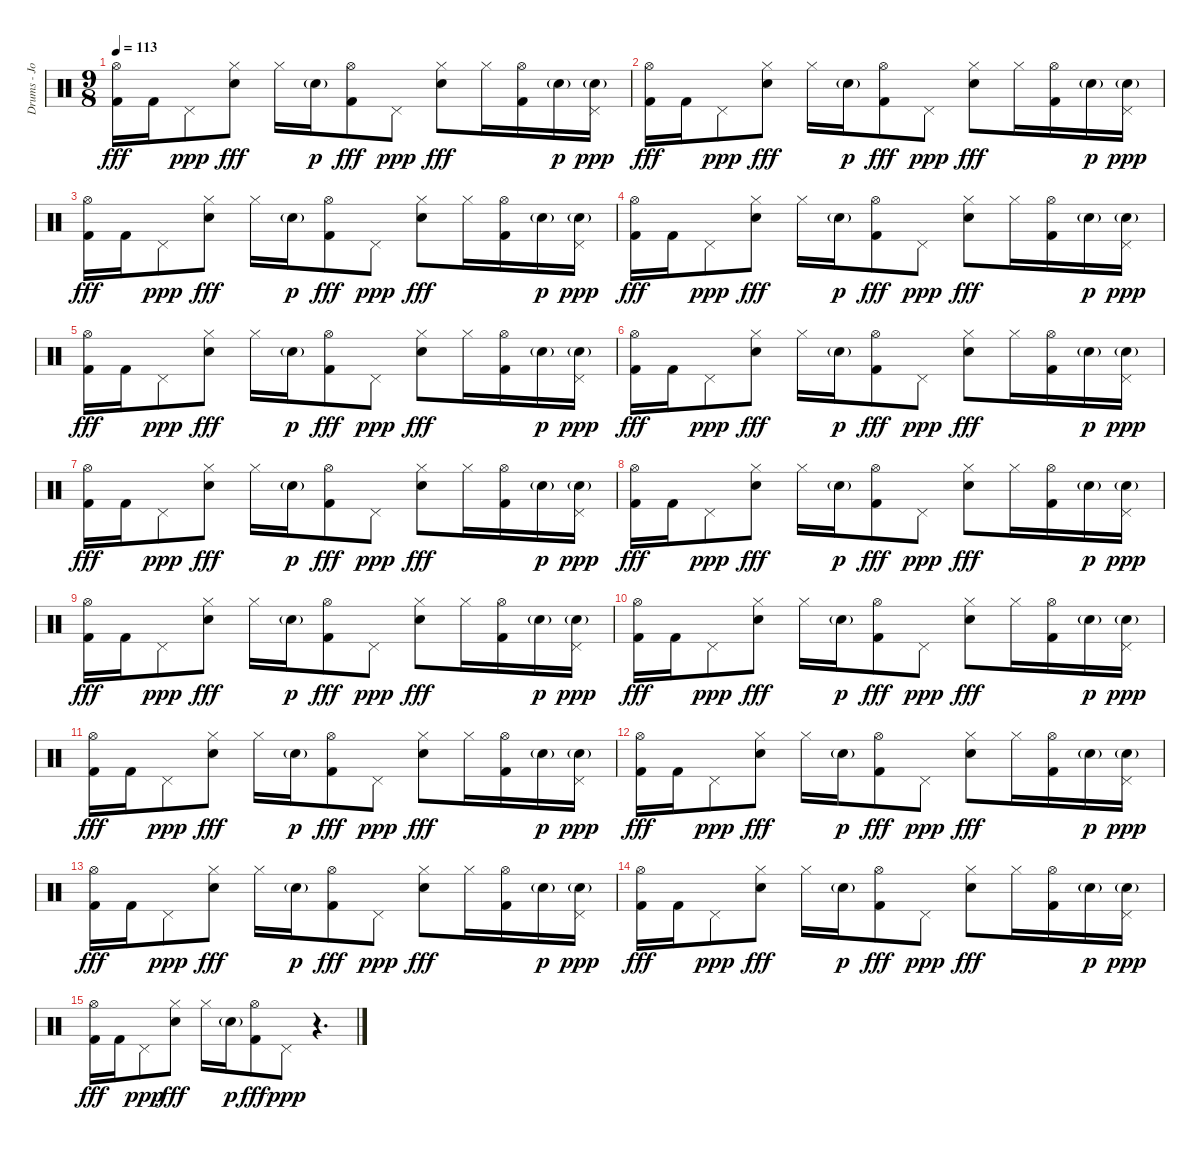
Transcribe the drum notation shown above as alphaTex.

\track ("Drums - John Bonham" "Drums - Jo") {instrument percussion}
\staff {score}
\articulation defaults
\ts (9 8)
\tempo 113
\clef neutral
\ks c
("Hi-Hat (open)" "Kick (hit) 2").16{dy fff} "Kick (hit) 2".16 "Pedal Hi-Hat (hit)".8{dy ppp} ("Hi-Hat (closed)" "Electric Snare (hit)").8{dy fff} "Hi-Hat (closed)".16 "Electric Snare (hit)"{g}.16{dy p} ("Hi-Hat (open)" "Kick (hit) 2").8{dy fff} "Pedal Hi-Hat (hit)".8{dy ppp} ("Hi-Hat (closed)" "Electric Snare (hit)").8{dy fff} "Hi-Hat (closed)".16 ("Hi-Hat (open)" "Kick (hit) 2").16 "Electric Snare (hit)"{g}.16{dy p} ("Electric Snare (hit)"{g} "Pedal Hi-Hat (hit)").16{dy ppp} |
("Hi-Hat (open)" "Kick (hit) 2").16{dy fff} "Kick (hit) 2".16 "Pedal Hi-Hat (hit)".8{dy ppp} ("Hi-Hat (closed)" "Electric Snare (hit)").8{dy fff} "Hi-Hat (closed)".16 "Electric Snare (hit)"{g}.16{dy p} ("Hi-Hat (open)" "Kick (hit) 2").8{dy fff} "Pedal Hi-Hat (hit)".8{dy ppp} ("Hi-Hat (closed)" "Electric Snare (hit)").8{dy fff} "Hi-Hat (closed)".16 ("Hi-Hat (open)" "Kick (hit) 2").16 "Electric Snare (hit)"{g}.16{dy p} ("Electric Snare (hit)"{g} "Pedal Hi-Hat (hit)").16{dy ppp} |
("Hi-Hat (open)" "Kick (hit) 2").16{dy fff} "Kick (hit) 2".16 "Pedal Hi-Hat (hit)".8{dy ppp} ("Hi-Hat (closed)" "Electric Snare (hit)").8{dy fff} "Hi-Hat (closed)".16 "Electric Snare (hit)"{g}.16{dy p} ("Hi-Hat (open)" "Kick (hit) 2").8{dy fff} "Pedal Hi-Hat (hit)".8{dy ppp} ("Hi-Hat (closed)" "Electric Snare (hit)").8{dy fff} "Hi-Hat (closed)".16 ("Hi-Hat (open)" "Kick (hit) 2").16 "Electric Snare (hit)"{g}.16{dy p} ("Electric Snare (hit)"{g} "Pedal Hi-Hat (hit)").16{dy ppp} |
("Hi-Hat (open)" "Kick (hit) 2").16{dy fff} "Kick (hit) 2".16 "Pedal Hi-Hat (hit)".8{dy ppp} ("Hi-Hat (closed)" "Electric Snare (hit)").8{dy fff} "Hi-Hat (closed)".16 "Electric Snare (hit)"{g}.16{dy p} ("Hi-Hat (open)" "Kick (hit) 2").8{dy fff} "Pedal Hi-Hat (hit)".8{dy ppp} ("Hi-Hat (closed)" "Electric Snare (hit)").8{dy fff} "Hi-Hat (closed)".16 ("Hi-Hat (open)" "Kick (hit) 2").16 "Electric Snare (hit)"{g}.16{dy p} ("Electric Snare (hit)"{g} "Pedal Hi-Hat (hit)").16{dy ppp} |
("Hi-Hat (open)" "Kick (hit) 2").16{dy fff} "Kick (hit) 2".16 "Pedal Hi-Hat (hit)".8{dy ppp} ("Hi-Hat (closed)" "Electric Snare (hit)").8{dy fff} "Hi-Hat (closed)".16 "Electric Snare (hit)"{g}.16{dy p} ("Hi-Hat (open)" "Kick (hit) 2").8{dy fff} "Pedal Hi-Hat (hit)".8{dy ppp} ("Hi-Hat (closed)" "Electric Snare (hit)").8{dy fff} "Hi-Hat (closed)".16 ("Hi-Hat (open)" "Kick (hit) 2").16 "Electric Snare (hit)"{g}.16{dy p} ("Electric Snare (hit)"{g} "Pedal Hi-Hat (hit)").16{dy ppp} |
("Hi-Hat (open)" "Kick (hit) 2").16{dy fff} "Kick (hit) 2".16 "Pedal Hi-Hat (hit)".8{dy ppp} ("Hi-Hat (closed)" "Electric Snare (hit)").8{dy fff} "Hi-Hat (closed)".16 "Electric Snare (hit)"{g}.16{dy p} ("Hi-Hat (open)" "Kick (hit) 2").8{dy fff} "Pedal Hi-Hat (hit)".8{dy ppp} ("Hi-Hat (closed)" "Electric Snare (hit)").8{dy fff} "Hi-Hat (closed)".16 ("Hi-Hat (open)" "Kick (hit) 2").16 "Electric Snare (hit)"{g}.16{dy p} ("Electric Snare (hit)"{g} "Pedal Hi-Hat (hit)").16{dy ppp} |
("Hi-Hat (open)" "Kick (hit) 2").16{dy fff} "Kick (hit) 2".16 "Pedal Hi-Hat (hit)".8{dy ppp} ("Hi-Hat (closed)" "Electric Snare (hit)").8{dy fff} "Hi-Hat (closed)".16 "Electric Snare (hit)"{g}.16{dy p} ("Hi-Hat (open)" "Kick (hit) 2").8{dy fff} "Pedal Hi-Hat (hit)".8{dy ppp} ("Hi-Hat (closed)" "Electric Snare (hit)").8{dy fff} "Hi-Hat (closed)".16 ("Hi-Hat (open)" "Kick (hit) 2").16 "Electric Snare (hit)"{g}.16{dy p} ("Electric Snare (hit)"{g} "Pedal Hi-Hat (hit)").16{dy ppp} |
("Hi-Hat (open)" "Kick (hit) 2").16{dy fff} "Kick (hit) 2".16 "Pedal Hi-Hat (hit)".8{dy ppp} ("Hi-Hat (closed)" "Electric Snare (hit)").8{dy fff} "Hi-Hat (closed)".16 "Electric Snare (hit)"{g}.16{dy p} ("Hi-Hat (open)" "Kick (hit) 2").8{dy fff} "Pedal Hi-Hat (hit)".8{dy ppp} ("Hi-Hat (closed)" "Electric Snare (hit)").8{dy fff} "Hi-Hat (closed)".16 ("Hi-Hat (open)" "Kick (hit) 2").16 "Electric Snare (hit)"{g}.16{dy p} ("Electric Snare (hit)"{g} "Pedal Hi-Hat (hit)").16{dy ppp} |
("Hi-Hat (open)" "Kick (hit) 2").16{dy fff} "Kick (hit) 2".16 "Pedal Hi-Hat (hit)".8{dy ppp} ("Hi-Hat (closed)" "Electric Snare (hit)").8{dy fff} "Hi-Hat (closed)".16 "Electric Snare (hit)"{g}.16{dy p} ("Hi-Hat (open)" "Kick (hit) 2").8{dy fff} "Pedal Hi-Hat (hit)".8{dy ppp} ("Hi-Hat (closed)" "Electric Snare (hit)").8{dy fff} "Hi-Hat (closed)".16 ("Hi-Hat (open)" "Kick (hit) 2").16 "Electric Snare (hit)"{g}.16{dy p} ("Electric Snare (hit)"{g} "Pedal Hi-Hat (hit)").16{dy ppp} |
("Hi-Hat (open)" "Kick (hit) 2").16{dy fff} "Kick (hit) 2".16 "Pedal Hi-Hat (hit)".8{dy ppp} ("Hi-Hat (closed)" "Electric Snare (hit)").8{dy fff} "Hi-Hat (closed)".16 "Electric Snare (hit)"{g}.16{dy p} ("Hi-Hat (open)" "Kick (hit) 2").8{dy fff} "Pedal Hi-Hat (hit)".8{dy ppp} ("Hi-Hat (closed)" "Electric Snare (hit)").8{dy fff} "Hi-Hat (closed)".16 ("Hi-Hat (open)" "Kick (hit) 2").16 "Electric Snare (hit)"{g}.16{dy p} ("Electric Snare (hit)"{g} "Pedal Hi-Hat (hit)").16{dy ppp} |
("Hi-Hat (open)" "Kick (hit) 2").16{dy fff} "Kick (hit) 2".16 "Pedal Hi-Hat (hit)".8{dy ppp} ("Hi-Hat (closed)" "Electric Snare (hit)").8{dy fff} "Hi-Hat (closed)".16 "Electric Snare (hit)"{g}.16{dy p} ("Hi-Hat (open)" "Kick (hit) 2").8{dy fff} "Pedal Hi-Hat (hit)".8{dy ppp} ("Hi-Hat (closed)" "Electric Snare (hit)").8{dy fff} "Hi-Hat (closed)".16 ("Hi-Hat (open)" "Kick (hit) 2").16 "Electric Snare (hit)"{g}.16{dy p} ("Electric Snare (hit)"{g} "Pedal Hi-Hat (hit)").16{dy ppp} |
("Hi-Hat (open)" "Kick (hit) 2").16{dy fff} "Kick (hit) 2".16 "Pedal Hi-Hat (hit)".8{dy ppp} ("Hi-Hat (closed)" "Electric Snare (hit)").8{dy fff} "Hi-Hat (closed)".16 "Electric Snare (hit)"{g}.16{dy p} ("Hi-Hat (open)" "Kick (hit) 2").8{dy fff} "Pedal Hi-Hat (hit)".8{dy ppp} ("Hi-Hat (closed)" "Electric Snare (hit)").8{dy fff} "Hi-Hat (closed)".16 ("Hi-Hat (open)" "Kick (hit) 2").16 "Electric Snare (hit)"{g}.16{dy p} ("Electric Snare (hit)"{g} "Pedal Hi-Hat (hit)").16{dy ppp} |
("Hi-Hat (open)" "Kick (hit) 2").16{dy fff} "Kick (hit) 2".16 "Pedal Hi-Hat (hit)".8{dy ppp} ("Hi-Hat (closed)" "Electric Snare (hit)").8{dy fff} "Hi-Hat (closed)".16 "Electric Snare (hit)"{g}.16{dy p} ("Hi-Hat (open)" "Kick (hit) 2").8{dy fff} "Pedal Hi-Hat (hit)".8{dy ppp} ("Hi-Hat (closed)" "Electric Snare (hit)").8{dy fff} "Hi-Hat (closed)".16 ("Hi-Hat (open)" "Kick (hit) 2").16 "Electric Snare (hit)"{g}.16{dy p} ("Electric Snare (hit)"{g} "Pedal Hi-Hat (hit)").16{dy ppp} |
("Hi-Hat (open)" "Kick (hit) 2").16{dy fff} "Kick (hit) 2".16 "Pedal Hi-Hat (hit)".8{dy ppp} ("Hi-Hat (closed)" "Electric Snare (hit)").8{dy fff} "Hi-Hat (closed)".16 "Electric Snare (hit)"{g}.16{dy p} ("Hi-Hat (open)" "Kick (hit) 2").8{dy fff} "Pedal Hi-Hat (hit)".8{dy ppp} ("Hi-Hat (closed)" "Electric Snare (hit)").8{dy fff} "Hi-Hat (closed)".16 ("Hi-Hat (open)" "Kick (hit) 2").16 "Electric Snare (hit)"{g}.16{dy p} ("Electric Snare (hit)"{g} "Pedal Hi-Hat (hit)").16{dy ppp} |
("Hi-Hat (open)" "Kick (hit) 2").16{dy fff} "Kick (hit) 2".16 "Pedal Hi-Hat (hit)".8{dy ppp} ("Hi-Hat (closed)" "Electric Snare (hit)").8{dy fff} "Hi-Hat (closed)".16 "Electric Snare (hit)"{g}.16{dy p} ("Hi-Hat (open)" "Kick (hit) 2").8{dy fff} "Pedal Hi-Hat (hit)".8{dy ppp} r.4{d}
